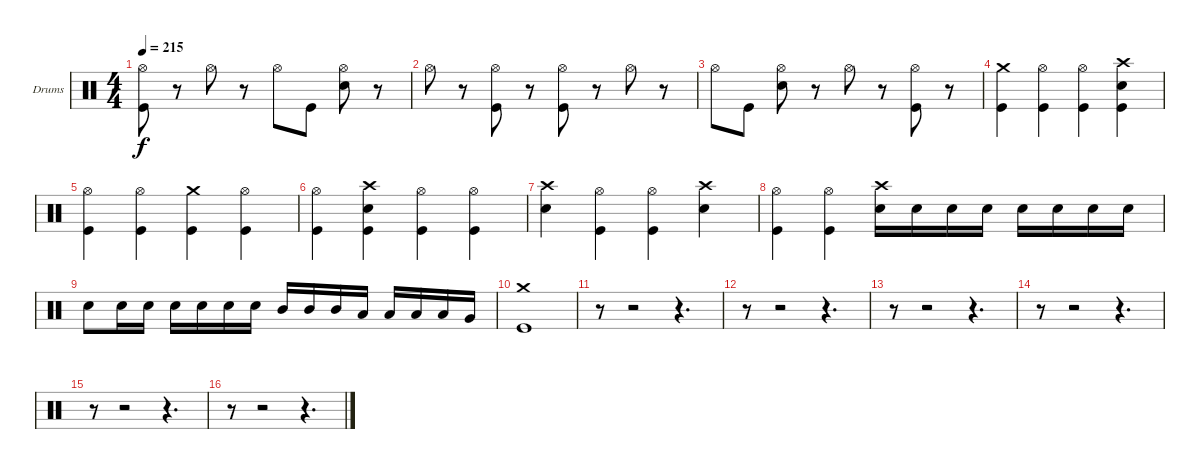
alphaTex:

\bracketExtendMode groupsimilarinstruments
\firstSystemTrackNameOrientation horizontal
\otherSystemsTrackNameOrientation horizontal
\track ("Drumkit (Christoph)" "Drums") {instrument percussion}
\staff {score}
\articulation defaults
\ts (4 4)
\tempo 215
\clef neutral
\ks c
("Hi-Hat (open)" "Kick (hit)").8{dy f} r.8 "Hi-Hat (open)".8 r.8 "Hi-Hat (open)".8 "Kick (hit)".8 ("Hi-Hat (open)" "Snare (hit) 2").8 r.8 |
"Hi-Hat (open)".8 r.8 ("Hi-Hat (open)" "Kick (hit)").8 r.8 ("Hi-Hat (open)" "Kick (hit)").8 r.8 "Hi-Hat (open)".8 r.8 |
"Hi-Hat (open)".8 "Kick (hit)".8 ("Hi-Hat (open)" "Snare (hit) 2").8 r.8 "Hi-Hat (open)".8 r.8 ("Hi-Hat (open)" "Kick (hit)").8 r.8 |
("Crash medium (hit)" "Kick (hit)").4 ("Hi-Hat (open)" "Kick (hit)").4 ("Hi-Hat (open)" "Kick (hit)").4 ("Crash high (hit)" "Snare (hit) 2" "Kick (hit)").4 |
("Hi-Hat (open)" "Kick (hit)").4 ("Hi-Hat (open)" "Kick (hit)").4 ("Crash medium (hit)" "Kick (hit)").4 ("Hi-Hat (open)" "Kick (hit)").4 |
("Hi-Hat (open)" "Kick (hit)").4 ("Snare (hit) 2" "Crash high (hit)" "Kick (hit)").4 ("Hi-Hat (open)" "Kick (hit)").4 ("Hi-Hat (open)" "Kick (hit)").4 |
("Crash high (hit)" "Snare (hit) 2").4 ("Hi-Hat (open)" "Kick (hit)").4 ("Hi-Hat (open)" "Kick (hit)").4 ("Crash high (hit)" "Snare (hit) 2").4 |
("Hi-Hat (open)" "Kick (hit)").4 ("Hi-Hat (open)" "Kick (hit)").4 ("Crash high (hit)" "Snare (hit) 2").16 "Snare (hit) 2".16 "Snare (hit) 2".16 "Snare (hit) 2".16 "Snare (hit) 2".16 "Snare (hit) 2".16 "Snare (hit) 2".16 "Snare (hit) 2".16 |
"Snare (hit) 2".8 "Snare (hit) 2".16 "Snare (hit) 2".16 "Snare (hit) 2".16 "Snare (hit) 2".16 "Snare (hit) 2".16 "Snare (hit) 2".16 "Mid Tom (hit)".16 "Mid Tom (hit)".16 "Mid Tom (hit)".16 "Low Tom (hit)".16 "Low Tom (hit)".16 "Low Tom (hit)".16 "Low Tom (hit)".16 "Very Low Tom (hit)".16 |
("Crash medium (hit)" "Kick (hit)").1 |
r.8 r.2 r.4{d} |
r.8 r.2 r.4{d} |
r.8 r.2 r.4{d} |
r.8 r.2 r.4{d} |
r.8 r.2 r.4{d} |
r.8 r.2 r.4{d}
